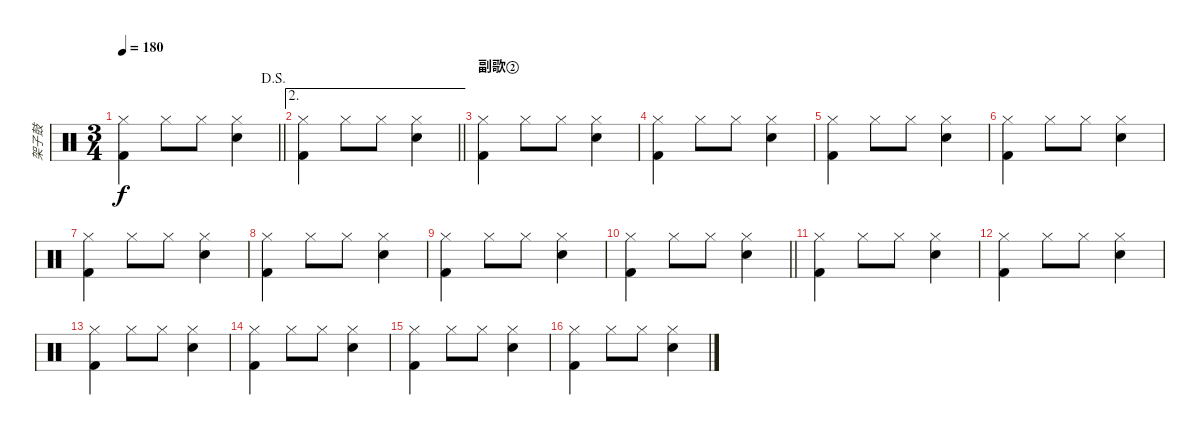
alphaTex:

\track ("架子鼓" "架子鼓") {instrument percussion}
\staff {score}
\articulation defaults
\ts (3 4)
\jump dalsegno
\tempo 180
\clef neutral
\barLineRight lightlight
\ks c
("Hi-Hat (closed)" "Kick (hit) 2").4{dy f} "Hi-Hat (closed)".8 "Hi-Hat (closed)".8 ("Hi-Hat (closed)" "Electric Snare (hit)").4 |
\ae 2
\barLineRight lightlight
("Hi-Hat (closed)" "Kick (hit) 2").4 "Hi-Hat (closed)".8 "Hi-Hat (closed)".8 ("Hi-Hat (closed)" "Electric Snare (hit)").4 |
\section ("" "副歌②")
("Hi-Hat (closed)" "Kick (hit) 2").4 "Hi-Hat (closed)".8 "Hi-Hat (closed)".8 ("Hi-Hat (closed)" "Electric Snare (hit)").4 |
("Hi-Hat (closed)" "Kick (hit) 2").4 "Hi-Hat (closed)".8 "Hi-Hat (closed)".8 ("Hi-Hat (closed)" "Electric Snare (hit)").4 |
("Hi-Hat (closed)" "Kick (hit) 2").4 "Hi-Hat (closed)".8 "Hi-Hat (closed)".8 ("Hi-Hat (closed)" "Electric Snare (hit)").4 |
("Hi-Hat (closed)" "Kick (hit) 2").4 "Hi-Hat (closed)".8 "Hi-Hat (closed)".8 ("Hi-Hat (closed)" "Electric Snare (hit)").4 |
("Hi-Hat (closed)" "Kick (hit) 2").4 "Hi-Hat (closed)".8 "Hi-Hat (closed)".8 ("Hi-Hat (closed)" "Electric Snare (hit)").4 |
("Hi-Hat (closed)" "Kick (hit) 2").4 "Hi-Hat (closed)".8 "Hi-Hat (closed)".8 ("Hi-Hat (closed)" "Electric Snare (hit)").4 |
("Hi-Hat (closed)" "Kick (hit) 2").4 "Hi-Hat (closed)".8 "Hi-Hat (closed)".8 ("Hi-Hat (closed)" "Electric Snare (hit)").4 |
\barLineRight lightlight
("Hi-Hat (closed)" "Kick (hit) 2").4 "Hi-Hat (closed)".8 "Hi-Hat (closed)".8 ("Hi-Hat (closed)" "Electric Snare (hit)").4 |
("Hi-Hat (closed)" "Kick (hit) 2").4 "Hi-Hat (closed)".8 "Hi-Hat (closed)".8 ("Hi-Hat (closed)" "Electric Snare (hit)").4 |
("Hi-Hat (closed)" "Kick (hit) 2").4 "Hi-Hat (closed)".8 "Hi-Hat (closed)".8 ("Hi-Hat (closed)" "Electric Snare (hit)").4 |
("Hi-Hat (closed)" "Kick (hit) 2").4 "Hi-Hat (closed)".8 "Hi-Hat (closed)".8 ("Hi-Hat (closed)" "Electric Snare (hit)").4 |
("Hi-Hat (closed)" "Kick (hit) 2").4 "Hi-Hat (closed)".8 "Hi-Hat (closed)".8 ("Hi-Hat (closed)" "Electric Snare (hit)").4 |
("Hi-Hat (closed)" "Kick (hit) 2").4 "Hi-Hat (closed)".8 "Hi-Hat (closed)".8 ("Hi-Hat (closed)" "Electric Snare (hit)").4 |
("Hi-Hat (closed)" "Kick (hit) 2").4 "Hi-Hat (closed)".8 "Hi-Hat (closed)".8 ("Hi-Hat (closed)" "Electric Snare (hit)").4
